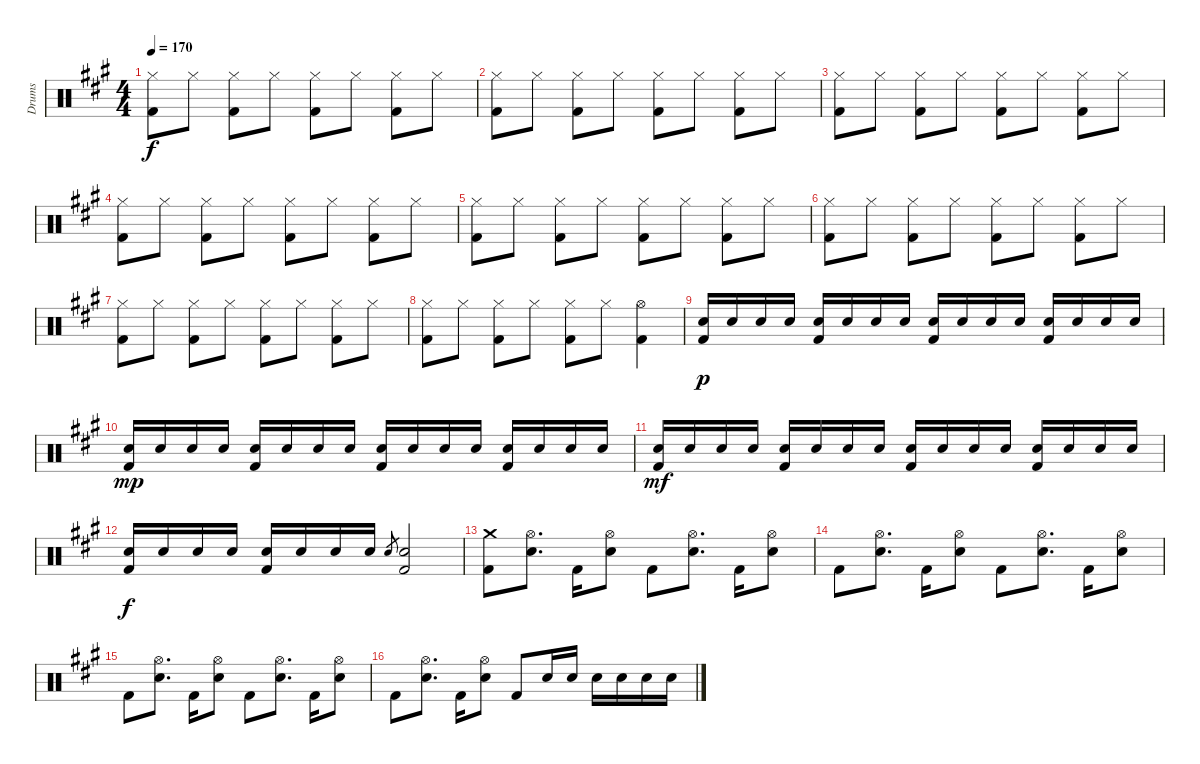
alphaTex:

\track ("Drums" "Drums") {instrument percussion}
\staff {score}
\articulation defaults
\ts (4 4)
\tempo 170
\clef neutral
\ks a
("Hi-Hat (closed)" "Kick (hit) 2").8{dy f} "Hi-Hat (closed)".8 ("Hi-Hat (closed)" "Kick (hit) 2").8 "Hi-Hat (closed)".8 ("Hi-Hat (closed)" "Kick (hit) 2").8 "Hi-Hat (closed)".8 ("Hi-Hat (closed)" "Kick (hit) 2").8 "Hi-Hat (closed)".8 |
("Hi-Hat (closed)" "Kick (hit) 2").8 "Hi-Hat (closed)".8 ("Hi-Hat (closed)" "Kick (hit) 2").8 "Hi-Hat (closed)".8 ("Hi-Hat (closed)" "Kick (hit) 2").8 "Hi-Hat (closed)".8 ("Hi-Hat (closed)" "Kick (hit) 2").8 "Hi-Hat (closed)".8 |
("Hi-Hat (closed)" "Kick (hit) 2").8 "Hi-Hat (closed)".8 ("Hi-Hat (closed)" "Kick (hit) 2").8 "Hi-Hat (closed)".8 ("Hi-Hat (closed)" "Kick (hit) 2").8 "Hi-Hat (closed)".8 ("Hi-Hat (closed)" "Kick (hit) 2").8 "Hi-Hat (closed)".8 |
("Hi-Hat (closed)" "Kick (hit) 2").8 "Hi-Hat (closed)".8 ("Hi-Hat (closed)" "Kick (hit) 2").8 "Hi-Hat (closed)".8 ("Hi-Hat (closed)" "Kick (hit) 2").8 "Hi-Hat (closed)".8 ("Hi-Hat (closed)" "Kick (hit) 2").8 "Hi-Hat (closed)".8 |
("Hi-Hat (closed)" "Kick (hit) 2").8 "Hi-Hat (closed)".8 ("Hi-Hat (closed)" "Kick (hit) 2").8 "Hi-Hat (closed)".8 ("Hi-Hat (closed)" "Kick (hit) 2").8 "Hi-Hat (closed)".8 ("Hi-Hat (closed)" "Kick (hit) 2").8 "Hi-Hat (closed)".8 |
("Hi-Hat (closed)" "Kick (hit) 2").8 "Hi-Hat (closed)".8 ("Hi-Hat (closed)" "Kick (hit) 2").8 "Hi-Hat (closed)".8 ("Hi-Hat (closed)" "Kick (hit) 2").8 "Hi-Hat (closed)".8 ("Hi-Hat (closed)" "Kick (hit) 2").8 "Hi-Hat (closed)".8 |
("Hi-Hat (closed)" "Kick (hit) 2").8 "Hi-Hat (closed)".8 ("Hi-Hat (closed)" "Kick (hit) 2").8 "Hi-Hat (closed)".8 ("Hi-Hat (closed)" "Kick (hit) 2").8 "Hi-Hat (closed)".8 ("Hi-Hat (closed)" "Kick (hit) 2").8 "Hi-Hat (closed)".8 |
("Hi-Hat (closed)" "Kick (hit) 2").8 "Hi-Hat (closed)".8 ("Hi-Hat (closed)" "Kick (hit) 2").8 "Hi-Hat (closed)".8 ("Hi-Hat (closed)" "Kick (hit) 2").8 "Hi-Hat (closed)".8 ("Hi-Hat (open)" "Kick (hit) 2").4 |
("Electric Snare (hit)" "Kick (hit) 2").16{dy p} "Electric Snare (hit)".16 "Electric Snare (hit)".16 "Electric Snare (hit)".16 ("Electric Snare (hit)" "Kick (hit) 2").16 "Electric Snare (hit)".16 "Electric Snare (hit)".16 "Electric Snare (hit)".16 ("Electric Snare (hit)" "Kick (hit) 2").16 "Electric Snare (hit)".16 "Electric Snare (hit)".16 "Electric Snare (hit)".16 ("Electric Snare (hit)" "Kick (hit) 2").16 "Electric Snare (hit)".16 "Electric Snare (hit)".16 "Electric Snare (hit)".16 |
("Electric Snare (hit)" "Kick (hit) 2").16{dy mp} "Electric Snare (hit)".16 "Electric Snare (hit)".16 "Electric Snare (hit)".16 ("Electric Snare (hit)" "Kick (hit) 2").16 "Electric Snare (hit)".16 "Electric Snare (hit)".16 "Electric Snare (hit)".16 ("Electric Snare (hit)" "Kick (hit) 2").16 "Electric Snare (hit)".16 "Electric Snare (hit)".16 "Electric Snare (hit)".16 ("Electric Snare (hit)" "Kick (hit) 2").16 "Electric Snare (hit)".16 "Electric Snare (hit)".16 "Electric Snare (hit)".16 |
("Electric Snare (hit)" "Kick (hit) 2").16{dy mf} "Electric Snare (hit)".16 "Electric Snare (hit)".16 "Electric Snare (hit)".16 ("Electric Snare (hit)" "Kick (hit) 2").16 "Electric Snare (hit)".16 "Electric Snare (hit)".16 "Electric Snare (hit)".16 ("Electric Snare (hit)" "Kick (hit) 2").16 "Electric Snare (hit)".16 "Electric Snare (hit)".16 "Electric Snare (hit)".16 ("Electric Snare (hit)" "Kick (hit) 2").16 "Electric Snare (hit)".16 "Electric Snare (hit)".16 "Electric Snare (hit)".16 |
("Electric Snare (hit)" "Kick (hit) 2").16{dy f} "Electric Snare (hit)".16 "Electric Snare (hit)".16 "Electric Snare (hit)".16 ("Electric Snare (hit)" "Kick (hit) 2").16 "Electric Snare (hit)".16 "Electric Snare (hit)".16 "Electric Snare (hit)".16 "Electric Snare (hit)".8{gr} ("Electric Snare (hit)" "Kick (hit) 2").2 |
("Crash medium (hit)" "Kick (hit) 2").8 ("Hi-Hat (open)" "Electric Snare (hit)").8{d} "Kick (hit) 2".16 ("Hi-Hat (open)" "Electric Snare (hit)").8 "Kick (hit) 2".8 ("Hi-Hat (open)" "Electric Snare (hit)").8{d} "Kick (hit) 2".16 ("Hi-Hat (open)" "Electric Snare (hit)").8 |
"Kick (hit) 2".8 ("Hi-Hat (open)" "Electric Snare (hit)").8{d} "Kick (hit) 2".16 ("Hi-Hat (open)" "Electric Snare (hit)").8 "Kick (hit) 2".8 ("Hi-Hat (open)" "Electric Snare (hit)").8{d} "Kick (hit) 2".16 ("Hi-Hat (open)" "Electric Snare (hit)").8 |
"Kick (hit) 2".8 ("Hi-Hat (open)" "Electric Snare (hit)").8{d} "Kick (hit) 2".16 ("Hi-Hat (open)" "Electric Snare (hit)").8 "Kick (hit) 2".8 ("Hi-Hat (open)" "Electric Snare (hit)").8{d} "Kick (hit) 2".16 ("Hi-Hat (open)" "Electric Snare (hit)").8 |
"Kick (hit) 2".8 ("Hi-Hat (open)" "Electric Snare (hit)").8{d} "Kick (hit) 2".16 ("Hi-Hat (open)" "Electric Snare (hit)").8 "Kick (hit) 2".8 "Electric Snare (hit)".16 "Electric Snare (hit)".16 "Electric Snare (hit)".16 "Electric Snare (hit)".16 "Electric Snare (hit)".16 "Electric Snare (hit)".16
